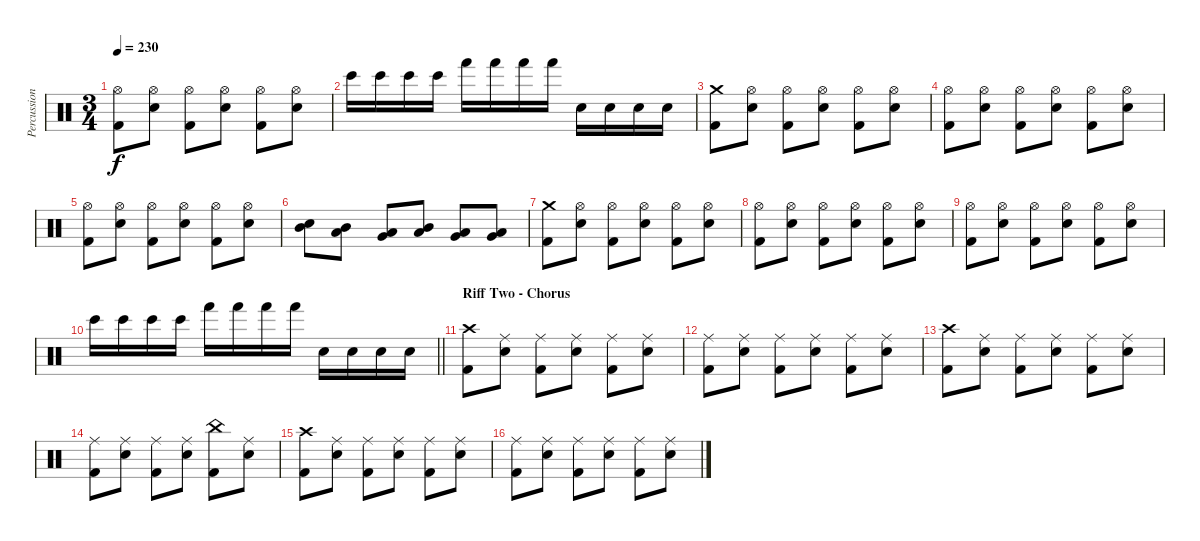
\track ("Percussion" "Percussion") {instrument percussion}
\staff {score}
\articulation defaults
\ts (3 4)
\tempo 230
\clef neutral
\ks c
("Hi-Hat (open)" "Kick (hit) 2").8{dy f} ("Hi-Hat (open)" "Electric Snare (hit)").8 ("Hi-Hat (open)" "Kick (hit) 2").8 ("Hi-Hat (open)" "Electric Snare (hit)").8 ("Hi-Hat (open)" "Kick (hit) 2").8 ("Hi-Hat (open)" "Electric Snare (hit)").8 |
"Bongo High (hit)".16 "Bongo High (hit)".16 "Bongo High (hit)".16 "Bongo High (hit)".16 "Hand (hit)".16 "Hand (hit)".16 "Hand (hit)".16 "Hand (hit)".16 "Electric Snare (hit)".16 "Electric Snare (hit)".16 "Electric Snare (hit)".16 "Electric Snare (hit)".16 |
("Crash medium (hit)" "Kick (hit) 2").8 ("Hi-Hat (open)" "Electric Snare (hit)").8 ("Hi-Hat (open)" "Kick (hit) 2").8 ("Hi-Hat (open)" "Electric Snare (hit)").8 ("Hi-Hat (open)" "Kick (hit) 2").8 ("Hi-Hat (open)" "Electric Snare (hit)").8 |
("Hi-Hat (open)" "Kick (hit) 2").8 ("Hi-Hat (open)" "Electric Snare (hit)").8 ("Hi-Hat (open)" "Kick (hit) 2").8 ("Hi-Hat (open)" "Electric Snare (hit)").8 ("Hi-Hat (open)" "Kick (hit) 2").8 ("Hi-Hat (open)" "Electric Snare (hit)").8 |
("Hi-Hat (open)" "Kick (hit) 2").8 ("Hi-Hat (open)" "Electric Snare (hit)").8 ("Hi-Hat (open)" "Kick (hit) 2").8 ("Hi-Hat (open)" "Electric Snare (hit)").8 ("Hi-Hat (open)" "Kick (hit) 2").8 ("Hi-Hat (open)" "Electric Snare (hit)").8 |
("Mid Tom (hit)" "Electric Snare (hit)").8 ("Low Tom (hit)" "Mid Tom (hit)").8 ("Very Low Tom (hit)" "Low Tom (hit)").8 ("Low Tom (hit)" "Mid Tom (hit)").8 ("Very Low Tom (hit)" "Low Tom (hit)").8 ("Very Low Tom (hit)" "Low Tom (hit)").8 |
("Crash medium (hit)" "Kick (hit) 2").8 ("Hi-Hat (open)" "Electric Snare (hit)").8 ("Hi-Hat (open)" "Kick (hit) 2").8 ("Hi-Hat (open)" "Electric Snare (hit)").8 ("Hi-Hat (open)" "Kick (hit) 2").8 ("Hi-Hat (open)" "Electric Snare (hit)").8 |
("Hi-Hat (open)" "Kick (hit) 2").8 ("Hi-Hat (open)" "Electric Snare (hit)").8 ("Hi-Hat (open)" "Kick (hit) 2").8 ("Hi-Hat (open)" "Electric Snare (hit)").8 ("Hi-Hat (open)" "Kick (hit) 2").8 ("Hi-Hat (open)" "Electric Snare (hit)").8 |
("Hi-Hat (open)" "Kick (hit) 2").8 ("Hi-Hat (open)" "Electric Snare (hit)").8 ("Hi-Hat (open)" "Kick (hit) 2").8 ("Hi-Hat (open)" "Electric Snare (hit)").8 ("Hi-Hat (open)" "Kick (hit) 2").8 ("Hi-Hat (open)" "Electric Snare (hit)").8 |
\barLineRight lightlight "Bongo High (hit)".16 "Bongo High (hit)".16 "Bongo High (hit)".16 "Bongo High (hit)".16 "Hand (hit)".16 "Hand (hit)".16 "Hand (hit)".16 "Hand (hit)".16 "Electric Snare (hit)".16 "Electric Snare (hit)".16 "Electric Snare (hit)".16 "Electric Snare (hit)".16
|
\section ("" "Riff Two - Chorus")
("Crash high (hit)" "Kick (hit) 2").8 ("Ride (middle)" "Electric Snare (hit)").8 ("Ride (middle)" "Kick (hit) 2").8 ("Ride (middle)" "Electric Snare (hit)").8 ("Ride (middle)" "Kick (hit) 2").8 ("Ride (middle)" "Electric Snare (hit)").8 |
("Ride (middle)" "Kick (hit) 2").8 ("Ride (middle)" "Electric Snare (hit)").8 ("Ride (middle)" "Kick (hit) 2").8 ("Ride (middle)" "Electric Snare (hit)").8 ("Ride (middle)" "Kick (hit) 2").8 ("Ride (middle)" "Electric Snare (hit)").8 |
("Crash high (hit)" "Kick (hit) 2").8 ("Ride (middle)" "Electric Snare (hit)").8 ("Ride (middle)" "Kick (hit) 2").8 ("Ride (middle)" "Electric Snare (hit)").8 ("Ride (middle)" "Kick (hit) 2").8 ("Ride (middle)" "Electric Snare (hit)").8 |
("Ride (middle)" "Kick (hit) 2").8 ("Ride (middle)" "Electric Snare (hit)").8 ("Ride (middle)" "Kick (hit) 2").8 ("Ride (middle)" "Electric Snare (hit)").8 ("China (hit)" "Kick (hit) 2").8 ("Ride (middle)" "Electric Snare (hit)").8 |
("Crash high (hit)" "Kick (hit) 2").8 ("Ride (middle)" "Electric Snare (hit)").8 ("Ride (middle)" "Kick (hit) 2").8 ("Ride (middle)" "Electric Snare (hit)").8 ("Ride (middle)" "Kick (hit) 2").8 ("Ride (middle)" "Electric Snare (hit)").8 |
("Ride (middle)" "Kick (hit) 2").8 ("Ride (middle)" "Electric Snare (hit)").8 ("Ride (middle)" "Kick (hit) 2").8 ("Ride (middle)" "Electric Snare (hit)").8 ("Ride (middle)" "Kick (hit) 2").8 ("Ride (middle)" "Electric Snare (hit)").8
